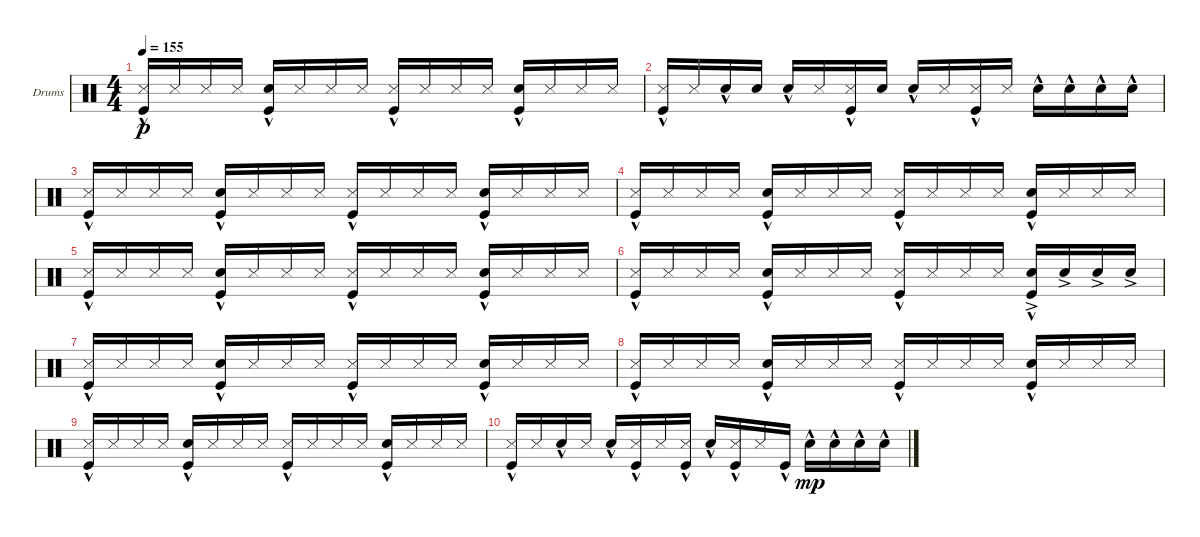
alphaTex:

\defaultSystemsLayout 4
\bracketExtendMode groupsimilarinstruments
\firstSystemTrackNameOrientation horizontal
\otherSystemsTrackNameOrientation horizontal
\track ("Drumkit" "Drums") {instrument percussion}
\staff {score}
\articulation defaults
\ts (4 4)
\tempo 155
\clef neutral
\ks c
("Snare (side stick) 3" "Kick (hit)"{hac}).16{dy p} "Snare (side stick) 3".16 "Snare (side stick) 3".16 "Snare (side stick) 3".16 ("Snare (hit) 2"{hac} "Kick (hit)"{hac}).16 "Snare (side stick) 3".16 "Snare (side stick) 3".16 "Snare (side stick) 3".16 ("Snare (side stick) 3" "Kick (hit)"{hac}).16 "Snare (side stick) 3".16 "Snare (side stick) 3".16 "Snare (side stick) 3".16 ("Snare (hit) 2"{hac} "Kick (hit)"{hac}).16 "Snare (side stick) 3".16 "Snare (side stick) 3".16 "Snare (side stick) 3".16 |
("Snare (side stick) 3" "Kick (hit)"{hac}).16 "Snare (side stick) 3".16 "Snare (hit) 2"{hac}.16 "Snare (hit) 2".16 "Snare (hit) 2"{hac}.16 "Snare (side stick) 3".16 ("Snare (side stick) 3" "Kick (hit)"{hac}).16 "Snare (hit) 2".16 "Snare (hit) 2"{hac}.16 "Snare (side stick) 3".16 ("Kick (hit)"{hac} "Snare (side stick) 3").16 "Snare (side stick) 3".16 "Snare (hit) 2"{hac}.16 "Snare (hit) 2"{hac}.16 "Snare (hit) 2"{hac}.16 "Snare (hit) 2"{hac}.16 |
("Snare (side stick) 3" "Kick (hit)"{hac}).16 "Snare (side stick) 3".16 "Snare (side stick) 3".16 "Snare (side stick) 3".16 ("Snare (hit) 2"{hac} "Kick (hit)"{hac}).16 "Snare (side stick) 3".16 "Snare (side stick) 3".16 "Snare (side stick) 3".16 ("Snare (side stick) 3" "Kick (hit)"{hac}).16 "Snare (side stick) 3".16 "Snare (side stick) 3".16 "Snare (side stick) 3".16 ("Snare (hit) 2"{hac} "Kick (hit)"{hac}).16 "Snare (side stick) 3".16 "Snare (side stick) 3".16 "Snare (side stick) 3".16 |
("Snare (side stick) 3" "Kick (hit)"{hac}).16 "Snare (side stick) 3".16 "Snare (side stick) 3".16 "Snare (side stick) 3".16 ("Snare (hit) 2"{hac} "Kick (hit)"{hac}).16 "Snare (side stick) 3".16 "Snare (side stick) 3".16 "Snare (side stick) 3".16 ("Snare (side stick) 3" "Kick (hit)"{hac}).16 "Snare (side stick) 3".16 "Snare (side stick) 3".16 "Snare (side stick) 3".16 ("Snare (hit) 2"{hac} "Kick (hit)"{hac}).16 "Snare (side stick) 3".16 "Snare (side stick) 3".16 "Snare (side stick) 3".16 |
("Snare (side stick) 3" "Kick (hit)"{hac}).16 "Snare (side stick) 3".16 "Snare (side stick) 3".16 "Snare (side stick) 3".16 ("Snare (hit) 2"{hac} "Kick (hit)"{hac}).16 "Snare (side stick) 3".16 "Snare (side stick) 3".16 "Snare (side stick) 3".16 ("Snare (side stick) 3" "Kick (hit)"{hac}).16 "Snare (side stick) 3".16 "Snare (side stick) 3".16 "Snare (side stick) 3".16 ("Snare (hit) 2"{hac} "Kick (hit)"{hac}).16 "Snare (side stick) 3".16 "Snare (side stick) 3".16 "Snare (side stick) 3".16 |
("Snare (side stick) 3" "Kick (hit)"{hac}).16 "Snare (side stick) 3".16 "Snare (side stick) 3".16 "Snare (side stick) 3".16 ("Snare (hit) 2"{hac} "Kick (hit)"{hac}).16 "Snare (side stick) 3".16 "Snare (side stick) 3".16 "Snare (side stick) 3".16 ("Snare (side stick) 3" "Kick (hit)"{hac}).16 "Snare (side stick) 3".16 "Snare (side stick) 3".16 "Snare (side stick) 3".16 ("Snare (hit) 2"{ac} "Kick (hit)"{hac}).16 "Snare (hit) 2"{ac}.16 "Snare (hit) 2"{ac}.16 "Snare (hit) 2"{ac}.16 |
("Snare (side stick) 3" "Kick (hit)"{hac}).16 "Snare (side stick) 3".16 "Snare (side stick) 3".16 "Snare (side stick) 3".16 ("Snare (hit) 2"{hac} "Kick (hit)"{hac}).16 "Snare (side stick) 3".16 "Snare (side stick) 3".16 "Snare (side stick) 3".16 ("Snare (side stick) 3" "Kick (hit)"{hac}).16 "Snare (side stick) 3".16 "Snare (side stick) 3".16 "Snare (side stick) 3".16 ("Snare (hit) 2"{hac} "Kick (hit)"{hac}).16 "Snare (side stick) 3".16 "Snare (side stick) 3".16 "Snare (side stick) 3".16 |
("Snare (side stick) 3" "Kick (hit)"{hac}).16 "Snare (side stick) 3".16 "Snare (side stick) 3".16 "Snare (side stick) 3".16 ("Snare (hit) 2"{hac} "Kick (hit)"{hac}).16 "Snare (side stick) 3".16 "Snare (side stick) 3".16 "Snare (side stick) 3".16 ("Snare (side stick) 3" "Kick (hit)"{hac}).16 "Snare (side stick) 3".16 "Snare (side stick) 3".16 "Snare (side stick) 3".16 ("Snare (hit) 2"{hac} "Kick (hit)"{hac}).16 "Snare (side stick) 3".16 "Snare (side stick) 3".16 "Snare (side stick) 3".16 |
("Snare (side stick) 3" "Kick (hit)"{hac}).16 "Snare (side stick) 3".16 "Snare (side stick) 3".16 "Snare (side stick) 3".16 ("Snare (hit) 2"{hac} "Kick (hit)"{hac}).16 "Snare (side stick) 3".16 "Snare (side stick) 3".16 "Snare (side stick) 3".16 ("Snare (side stick) 3" "Kick (hit)"{hac}).16 "Snare (side stick) 3".16 "Snare (side stick) 3".16 "Snare (side stick) 3".16 ("Snare (hit) 2"{hac} "Kick (hit)"{hac}).16 "Snare (side stick) 3".16 "Snare (side stick) 3".16 "Snare (side stick) 3".16 |
("Snare (side stick) 3" "Kick (hit)"{hac}).16 "Snare (side stick) 3".16 "Snare (hit) 2"{hac}.16 "Snare (side stick) 3".16 "Snare (hit) 2"{hac}.16 ("Snare (side stick) 3" "Kick (hit)"{hac}).16 "Snare (side stick) 3".16 ("Kick (hit)"{hac} "Snare (side stick) 3").16 "Snare (hit) 2"{hac}.16 ("Kick (hit)"{hac} "Snare (side stick) 3").16 "Snare (side stick) 3".16 "Kick (hit)"{hac}.16 "Snare (hit) 2"{hac}.16{dy mp} "Snare (hit) 2"{hac}.16 "Snare (hit) 2"{hac}.16 "Snare (hit) 2"{hac}.16
